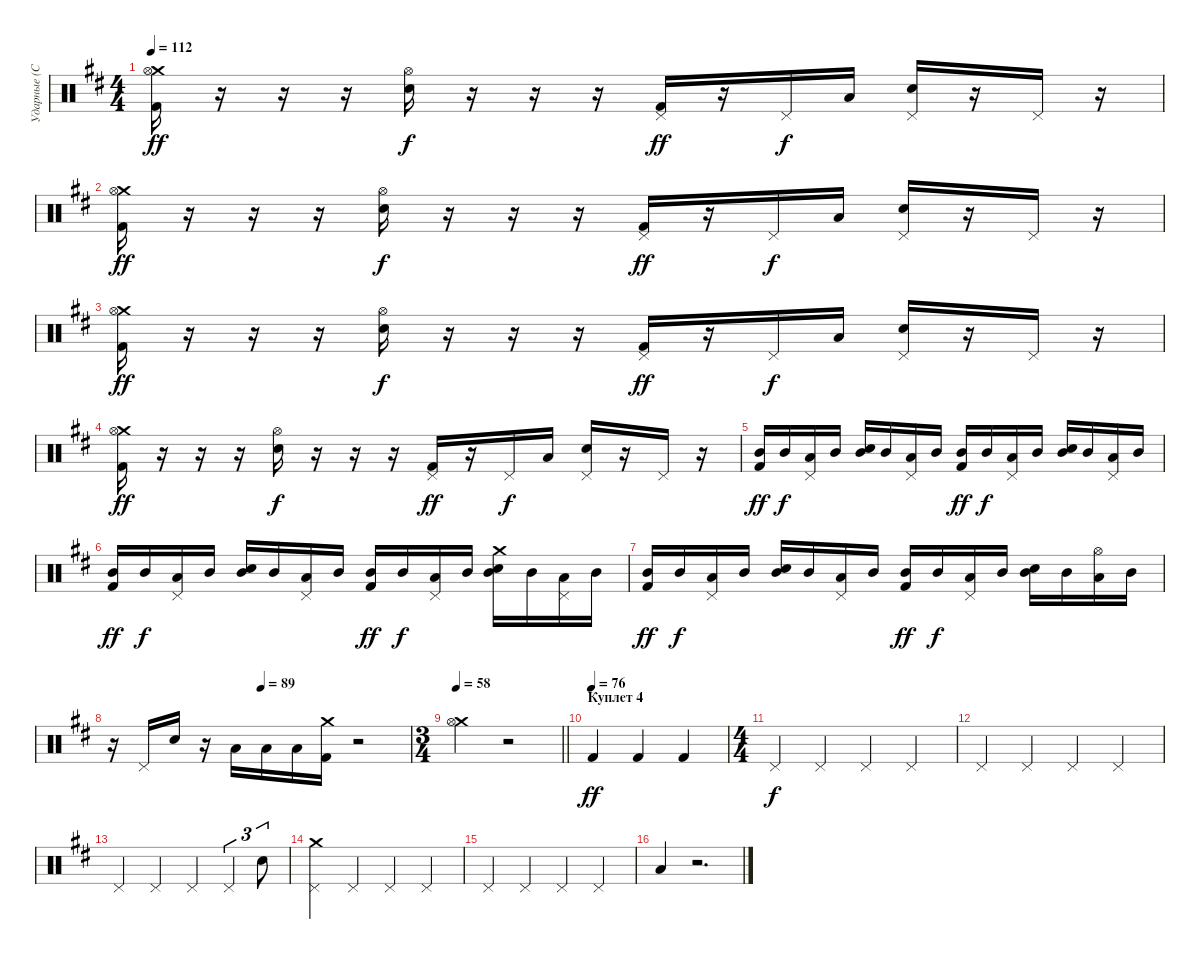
\track ("Ударные (С.Кавагое)" "Ударные (С") {instrument percussion}
\staff {score}
\articulation defaults
\ts (4 4)
\tempo 112
\clef neutral
\ks bminor
("Crash medium (hit)" "Hi-Hat (open)" "Kick (hit) 2").16{dy ff} r.16 r.16 r.16 ("Hi-Hat (open)" "Electric Snare (hit)").16{dy f} r.16 r.16 r.16 ("Pedal Hi-Hat (hit)" "Kick (hit) 2").16{dy ff} r.16 "Pedal Hi-Hat (hit)".16{dy f} "Low Tom (hit)".16 ("Pedal Hi-Hat (hit)" "Electric Snare (hit)").16 r.16 "Pedal Hi-Hat (hit)".16 r.16 |
("Crash medium (hit)" "Hi-Hat (open)" "Kick (hit) 2").16{dy ff} r.16 r.16 r.16 ("Hi-Hat (open)" "Electric Snare (hit)").16{dy f} r.16 r.16 r.16 ("Pedal Hi-Hat (hit)" "Kick (hit) 2").16{dy ff} r.16 "Pedal Hi-Hat (hit)".16{dy f} "Low Tom (hit)".16 ("Pedal Hi-Hat (hit)" "Electric Snare (hit)").16 r.16 "Pedal Hi-Hat (hit)".16 r.16 |
("Crash medium (hit)" "Hi-Hat (open)" "Kick (hit) 2").16{dy ff} r.16 r.16 r.16 ("Hi-Hat (open)" "Electric Snare (hit)").16{dy f} r.16 r.16 r.16 ("Pedal Hi-Hat (hit)" "Kick (hit) 2").16{dy ff} r.16 "Pedal Hi-Hat (hit)".16{dy f} "Low Tom (hit)".16 ("Pedal Hi-Hat (hit)" "Electric Snare (hit)").16 r.16 "Pedal Hi-Hat (hit)".16 r.16 |
("Crash medium (hit)" "Hi-Hat (open)" "Kick (hit) 2").16{dy ff} r.16 r.16 r.16 ("Hi-Hat (open)" "Electric Snare (hit)").16{dy f} r.16 r.16 r.16 ("Pedal Hi-Hat (hit)" "Kick (hit) 2").16{dy ff} r.16 "Pedal Hi-Hat (hit)".16{dy f} "Low Tom (hit)".16 ("Pedal Hi-Hat (hit)" "Electric Snare (hit)").16 r.16 "Pedal Hi-Hat (hit)".16 r.16 |
("Mid Tom (hit)" "Kick (hit) 2").16{dy ff} "Mid Tom (hit)".16{dy f} ("Pedal Hi-Hat (hit)" "Low Tom (hit)").16 "Mid Tom (hit)".16 ("Mid Tom (hit)" "Electric Snare (hit)").16 "Mid Tom (hit)".16 ("Pedal Hi-Hat (hit)" "Low Tom (hit)").16 "Mid Tom (hit)".16 ("Mid Tom (hit)" "Kick (hit) 2").16{dy ff} "Mid Tom (hit)".16{dy f} ("Pedal Hi-Hat (hit)" "Low Tom (hit)").16 "Mid Tom (hit)".16 ("Mid Tom (hit)" "Electric Snare (hit)").16 "Mid Tom (hit)".16 ("Pedal Hi-Hat (hit)" "Low Tom (hit)").16 "Mid Tom (hit)".16 |
("Mid Tom (hit)" "Kick (hit) 2").16{dy ff} "Mid Tom (hit)".16{dy f} ("Pedal Hi-Hat (hit)" "Low Tom (hit)").16 "Mid Tom (hit)".16 ("Mid Tom (hit)" "Electric Snare (hit)").16 "Mid Tom (hit)".16 ("Pedal Hi-Hat (hit)" "Low Tom (hit)").16 "Mid Tom (hit)".16 ("Mid Tom (hit)" "Kick (hit) 2").16{dy ff} "Mid Tom (hit)".16{dy f} ("Pedal Hi-Hat (hit)" "Low Tom (hit)").16 "Mid Tom (hit)".16 ("Crash medium (hit)" "Mid Tom (hit)" "Electric Snare (hit)").16 "Mid Tom (hit)".16 ("Pedal Hi-Hat (hit)" "Low Tom (hit)").16 "Mid Tom (hit)".16 |
("Mid Tom (hit)" "Kick (hit) 2").16{dy ff} "Mid Tom (hit)".16{dy f} ("Pedal Hi-Hat (hit)" "Low Tom (hit)").16 "Mid Tom (hit)".16 ("Mid Tom (hit)" "Electric Snare (hit)").16 "Mid Tom (hit)".16 ("Pedal Hi-Hat (hit)" "Low Tom (hit)").16 "Mid Tom (hit)".16 ("Mid Tom (hit)" "Kick (hit) 2").16{dy ff} "Mid Tom (hit)".16{dy f} ("Pedal Hi-Hat (hit)" "Low Tom (hit)").16 "Mid Tom (hit)".16 ("Mid Tom (hit)" "Electric Snare (hit)").16 "Mid Tom (hit)".16 ("Hi-Hat (open)" "Low Tom (hit)").16 "Mid Tom (hit)".16 |
\tempo (89 0.5)
r.16 "Pedal Hi-Hat (hit)".16 "Electric Snare (hit)".16 r.16 "Low Tom (hit)".16 "Low Tom (hit)".16 "Low Tom (hit)".16 ("Crash medium (hit)" "Kick (hit) 2").16 r.2 |
\ts (3 4)
\tempo 58
\barLineRight lightlight
("Crash medium (hit)" "Hi-Hat (open)").4 r.2 |
\section ("" "Куплет 4")
\tempo (76)
"Kick (hit) 2".4{dy ff} "Kick (hit) 2".4 "Kick (hit) 2".4 |
\ts (4 4)
"Pedal Hi-Hat (hit)".4{dy f} "Pedal Hi-Hat (hit)".4 "Pedal Hi-Hat (hit)".4 "Pedal Hi-Hat (hit)".4 |
"Pedal Hi-Hat (hit)".4 "Pedal Hi-Hat (hit)".4 "Pedal Hi-Hat (hit)".4 "Pedal Hi-Hat (hit)".4 |
"Pedal Hi-Hat (hit)".4 "Pedal Hi-Hat (hit)".4 "Pedal Hi-Hat (hit)".4 "Pedal Hi-Hat (hit)".4{tu (3 2)} "Electric Snare (hit)".8{tu (3 2)} |
("Crash medium (hit)" "Pedal Hi-Hat (hit)").4 "Pedal Hi-Hat (hit)".4 "Pedal Hi-Hat (hit)".4 "Pedal Hi-Hat (hit)".4 |
"Pedal Hi-Hat (hit)".4 "Pedal Hi-Hat (hit)".4 "Pedal Hi-Hat (hit)".4 "Pedal Hi-Hat (hit)".4 |
"Low Floor Tom (hit)".4 r.2{d}
